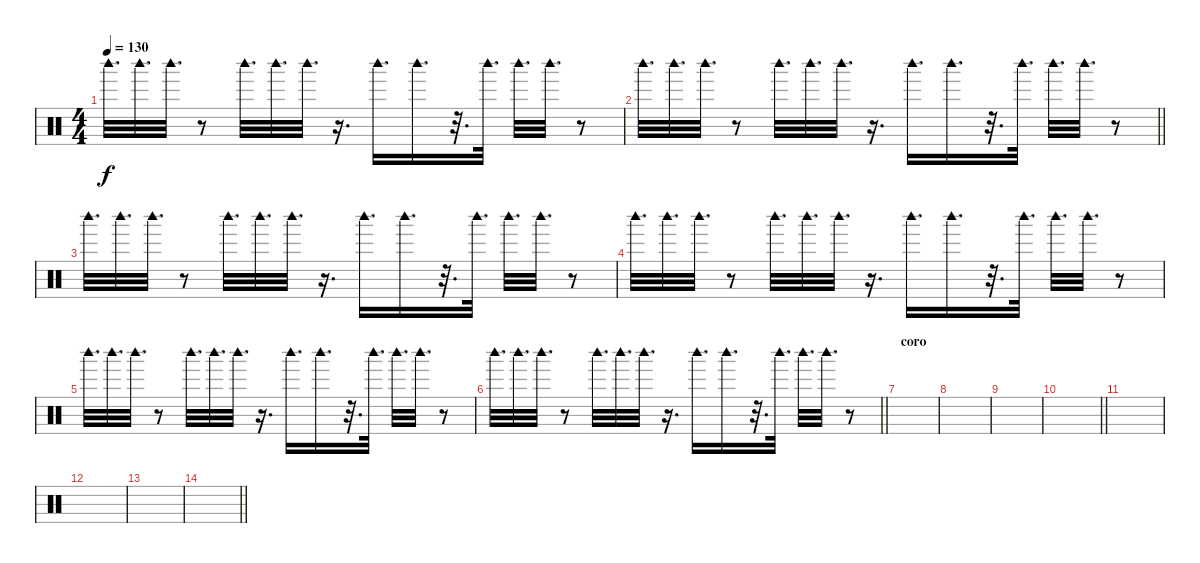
\track "" {instrument percussion}
\staff {score}
\articulation defaults
\ts (4 4)
\tempo 130
\clef neutral
\ks c "Woodblock high (hit)".32{d dy f} "Woodblock high (hit)".32{d} "Woodblock high (hit)".32{d}
r.8 "Woodblock high (hit)".32{d} "Woodblock high (hit)".32{d} "Woodblock high (hit)".32{d} r.16{d} "Woodblock high (hit)".16{d} "Woodblock high (hit)".16{d} r.32{d} "Woodblock high (hit)".32{d} "Woodblock high (hit)".32{d} "Woodblock high (hit)".32{d} r.8 |
\barLineRight lightlight "Woodblock high (hit)".32{d} "Woodblock high (hit)".32{d} "Woodblock high (hit)".32{d}
r.8 "Woodblock high (hit)".32{d} "Woodblock high (hit)".32{d} "Woodblock high (hit)".32{d} r.16{d} "Woodblock high (hit)".16{d} "Woodblock high (hit)".16{d} r.32{d} "Woodblock high (hit)".32{d} "Woodblock high (hit)".32{d} "Woodblock high (hit)".32{d} r.8 |
\section ("" "")
"Woodblock high (hit)".32{d} "Woodblock high (hit)".32{d} "Woodblock high (hit)".32{d} r.8 "Woodblock high (hit)".32{d} "Woodblock high (hit)".32{d} "Woodblock high (hit)".32{d} r.16{d} "Woodblock high (hit)".16{d} "Woodblock high (hit)".16{d} r.32{d} "Woodblock high (hit)".32{d} "Woodblock high (hit)".32{d} "Woodblock high (hit)".32{d} r.8 |
"Woodblock high (hit)".32{d} "Woodblock high (hit)".32{d} "Woodblock high (hit)".32{d} r.8 "Woodblock high (hit)".32{d} "Woodblock high (hit)".32{d} "Woodblock high (hit)".32{d} r.16{d} "Woodblock high (hit)".16{d} "Woodblock high (hit)".16{d} r.32{d} "Woodblock high (hit)".32{d} "Woodblock high (hit)".32{d} "Woodblock high (hit)".32{d} r.8 |
"Woodblock high (hit)".32{d} "Woodblock high (hit)".32{d} "Woodblock high (hit)".32{d} r.8 "Woodblock high (hit)".32{d} "Woodblock high (hit)".32{d} "Woodblock high (hit)".32{d} r.16{d} "Woodblock high (hit)".16{d} "Woodblock high (hit)".16{d} r.32{d} "Woodblock high (hit)".32{d} "Woodblock high (hit)".32{d} "Woodblock high (hit)".32{d} r.8 |
\barLineRight lightlight "Woodblock high (hit)".32{d} "Woodblock high (hit)".32{d} "Woodblock high (hit)".32{d}
r.8 "Woodblock high (hit)".32{d} "Woodblock high (hit)".32{d} "Woodblock high (hit)".32{d} r.16{d} "Woodblock high (hit)".16{d} "Woodblock high (hit)".16{d} r.32{d} "Woodblock high (hit)".32{d} "Woodblock high (hit)".32{d} "Woodblock high (hit)".32{d} r.8 |
\section ("" "coro")
|
|
|
\barLineRight lightlight
|
\section ("" "")
|
|
|
\barLineRight lightlight
